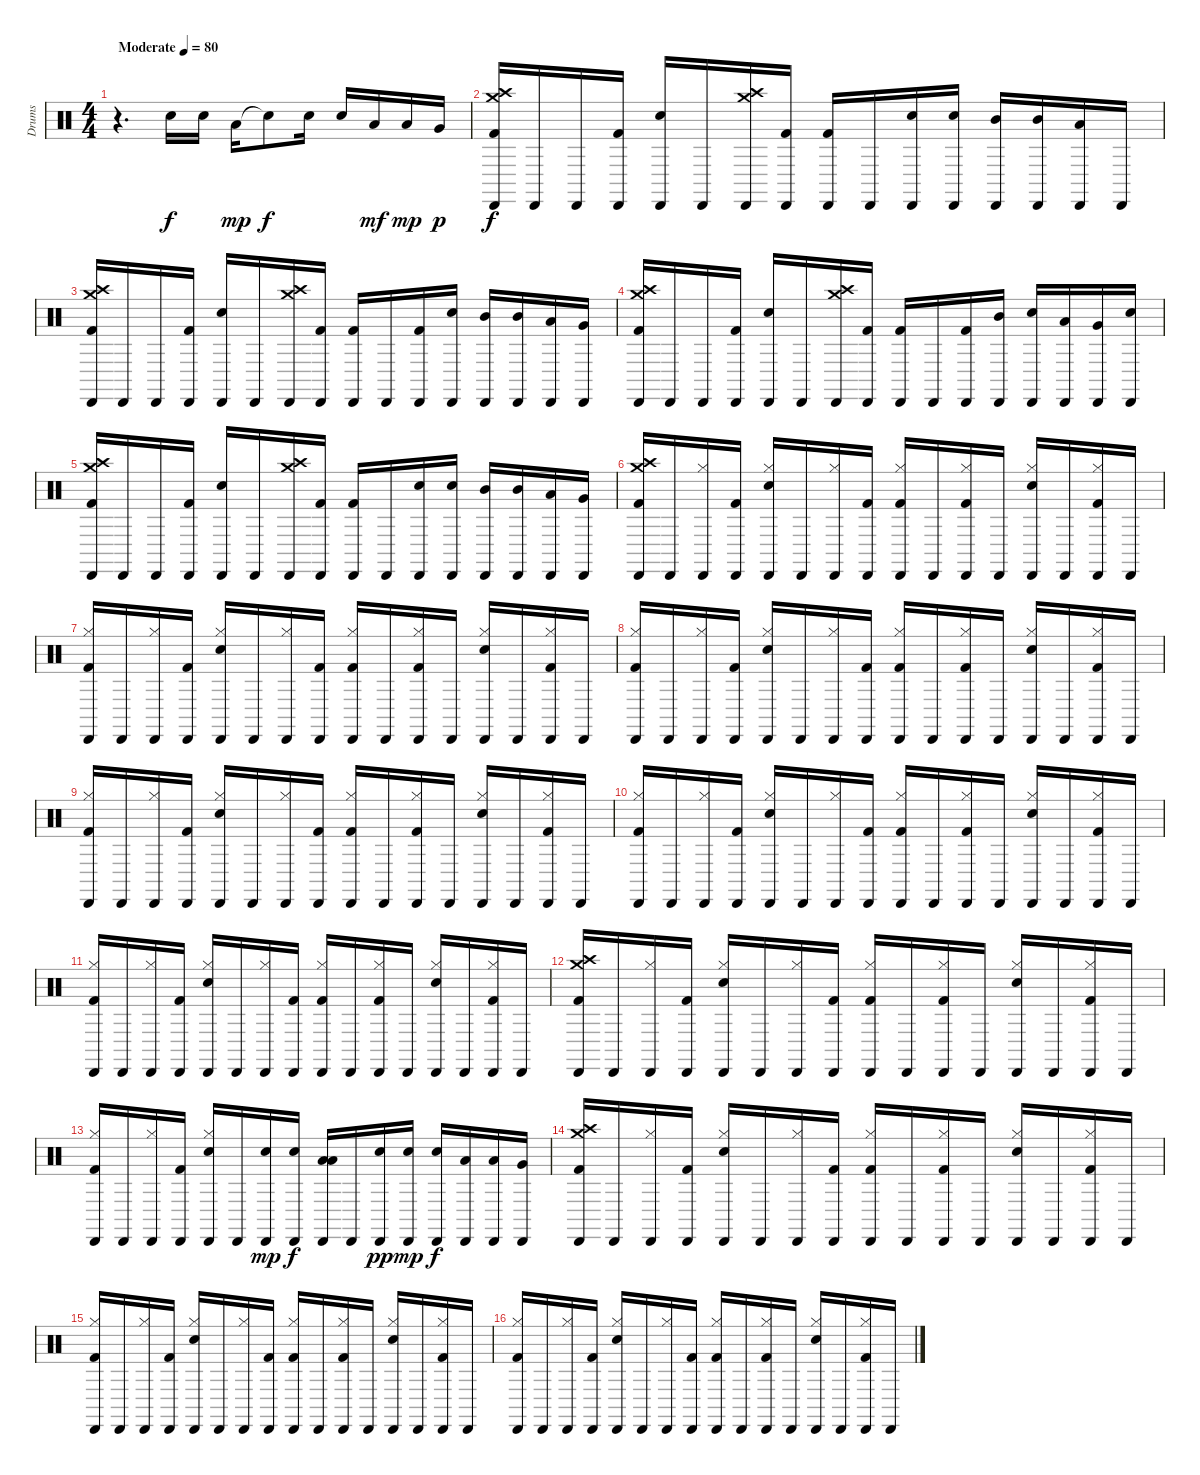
\track ("Drums" "Drums") {instrument percussion}
\staff {score}
\articulation defaults
\ts (4 4)
\tempo (80 "Moderate")
\clef neutral
\ks c
r.4{d dy f} "Electric Snare (hit)".16 "Electric Snare (hit)".16 "Low Tom (hit)".16{dy mp} "Snare (hit)"{t}.8{dy f} "Electric Snare (hit)".16 "Electric Snare (hit)".16 "Low Tom (hit)".16{dy mf} "Low Tom (hit)".16{dy mp} "Very Low Tom (hit)".16{dy p} |
("Cabasa (hit)" "Crash medium (hit)" "Kick (hit) 2" "Crash high (hit)").16{dy f} "Cabasa (hit)".16 "Cabasa (hit)".16 ("Cabasa (hit)" "Kick (hit) 2").16 ("Cabasa (hit)" "Electric Snare (hit)").16 "Cabasa (hit)".16 ("Cabasa (hit)" "Crash medium (hit)" "Crash high (hit)").16 ("Cabasa (hit)" "Kick (hit) 2").16 ("Cabasa (hit)" "Kick (hit) 2").16 "Cabasa (hit)".16 ("Cabasa (hit)" "Electric Snare (hit)").16 ("Cabasa (hit)" "Electric Snare (hit)").16 ("Cabasa (hit)" "Mid Tom (hit)").16 ("Cabasa (hit)" "Mid Tom (hit)").16 ("Cabasa (hit)" "Low Tom (hit)").16 "Cabasa (hit)".16 |
("Cabasa (hit)" "Crash medium (hit)" "Crash high (hit)" "Kick (hit) 2").16 "Cabasa (hit)".16 "Cabasa (hit)".16 ("Cabasa (hit)" "Kick (hit) 2").16 ("Cabasa (hit)" "Electric Snare (hit)").16 "Cabasa (hit)".16 ("Cabasa (hit)" "Crash high (hit)" "Crash medium (hit)").16 ("Cabasa (hit)" "Kick (hit) 2").16 ("Cabasa (hit)" "Kick (hit) 2").16 "Cabasa (hit)".16 ("Cabasa (hit)" "Kick (hit) 2").16 ("Cabasa (hit)" "Electric Snare (hit)").16 ("Cabasa (hit)" "Mid Tom (hit)").16 ("Cabasa (hit)" "Mid Tom (hit)").16 ("Cabasa (hit)" "Low Tom (hit)").16 ("Cabasa (hit)" "Very Low Tom (hit)").16 |
("Cabasa (hit)" "Kick (hit) 2" "Crash high (hit)" "Crash medium (hit)").16 "Cabasa (hit)".16 "Cabasa (hit)".16 ("Cabasa (hit)" "Kick (hit) 2").16 ("Cabasa (hit)" "Electric Snare (hit)").16 "Cabasa (hit)".16 ("Cabasa (hit)" "Crash medium (hit)" "Crash high (hit)").16 ("Cabasa (hit)" "Kick (hit) 2").16 ("Cabasa (hit)" "Kick (hit) 2").16 "Cabasa (hit)".16 ("Cabasa (hit)" "Kick (hit) 2").16 ("Cabasa (hit)" "Mid Tom (hit)").16 ("Cabasa (hit)" "Electric Snare (hit)").16 ("Cabasa (hit)" "Low Tom (hit)").16 ("Cabasa (hit)" "Very Low Tom (hit)").16 ("Cabasa (hit)" "Electric Snare (hit)").16 |
("Cabasa (hit)" "Crash high (hit)" "Crash medium (hit)" "Kick (hit) 2").16 "Cabasa (hit)".16 "Cabasa (hit)".16 ("Cabasa (hit)" "Kick (hit) 2").16 ("Cabasa (hit)" "Electric Snare (hit)").16 "Cabasa (hit)".16 ("Cabasa (hit)" "Crash medium (hit)" "Crash high (hit)").16 ("Cabasa (hit)" "Kick (hit) 2").16 ("Cabasa (hit)" "Kick (hit) 2").16 "Cabasa (hit)".16 ("Cabasa (hit)" "Electric Snare (hit)").16 ("Cabasa (hit)" "Electric Snare (hit)").16 ("Cabasa (hit)" "Mid Tom (hit)").16 ("Cabasa (hit)" "Mid Tom (hit)").16 ("Cabasa (hit)" "Low Tom (hit)").16 ("Cabasa (hit)" "Very Low Tom (hit)").16 |
("Cabasa (hit)" "Crash medium (hit)" "Kick (hit) 2" "Crash high (hit)").16 "Cabasa (hit)".16 ("Cabasa (hit)" "Hi-Hat (closed)").16 ("Cabasa (hit)" "Kick (hit) 2").16 ("Cabasa (hit)" "Hi-Hat (closed)" "Electric Snare (hit)").16 "Cabasa (hit)".16 ("Cabasa (hit)" "Hi-Hat (closed)").16 ("Cabasa (hit)" "Kick (hit) 2").16 ("Cabasa (hit)" "Hi-Hat (closed)" "Kick (hit) 2").16 "Cabasa (hit)".16 ("Cabasa (hit)" "Hi-Hat (closed)" "Kick (hit) 2").16 "Cabasa (hit)".16 ("Cabasa (hit)" "Hi-Hat (closed)" "Electric Snare (hit)").16 "Cabasa (hit)".16 ("Cabasa (hit)" "Hi-Hat (closed)" "Kick (hit) 2").16 "Cabasa (hit)".16 |
("Cabasa (hit)" "Hi-Hat (closed)" "Kick (hit) 2").16 "Cabasa (hit)".16 ("Cabasa (hit)" "Hi-Hat (closed)").16 ("Cabasa (hit)" "Kick (hit) 2").16 ("Cabasa (hit)" "Hi-Hat (closed)" "Electric Snare (hit)").16 "Cabasa (hit)".16 ("Cabasa (hit)" "Hi-Hat (closed)").16 ("Cabasa (hit)" "Kick (hit) 2").16 ("Cabasa (hit)" "Hi-Hat (closed)" "Kick (hit) 2").16 "Cabasa (hit)".16 ("Cabasa (hit)" "Hi-Hat (closed)" "Kick (hit) 2").16 "Cabasa (hit)".16 ("Cabasa (hit)" "Hi-Hat (closed)" "Electric Snare (hit)").16 "Cabasa (hit)".16 ("Cabasa (hit)" "Hi-Hat (closed)" "Kick (hit) 2").16 "Cabasa (hit)".16 |
("Cabasa (hit)" "Hi-Hat (closed)" "Kick (hit) 2").16 "Cabasa (hit)".16 ("Cabasa (hit)" "Hi-Hat (closed)").16 ("Cabasa (hit)" "Kick (hit) 2").16 ("Cabasa (hit)" "Hi-Hat (closed)" "Electric Snare (hit)").16 "Cabasa (hit)".16 ("Cabasa (hit)" "Hi-Hat (closed)").16 ("Cabasa (hit)" "Kick (hit) 2").16 ("Cabasa (hit)" "Hi-Hat (closed)" "Kick (hit) 2").16 "Cabasa (hit)".16 ("Cabasa (hit)" "Hi-Hat (closed)" "Kick (hit) 2").16 "Cabasa (hit)".16 ("Cabasa (hit)" "Hi-Hat (closed)" "Electric Snare (hit)").16 "Cabasa (hit)".16 ("Cabasa (hit)" "Hi-Hat (closed)" "Kick (hit) 2").16 "Cabasa (hit)".16 |
("Cabasa (hit)" "Hi-Hat (closed)" "Kick (hit) 2").16 "Cabasa (hit)".16 ("Cabasa (hit)" "Hi-Hat (closed)").16 ("Cabasa (hit)" "Kick (hit) 2").16 ("Cabasa (hit)" "Hi-Hat (closed)" "Electric Snare (hit)").16 "Cabasa (hit)".16 ("Cabasa (hit)" "Hi-Hat (closed)").16 ("Cabasa (hit)" "Kick (hit) 2").16 ("Cabasa (hit)" "Hi-Hat (closed)" "Kick (hit) 2").16 "Cabasa (hit)".16 ("Cabasa (hit)" "Hi-Hat (closed)" "Kick (hit) 2").16 "Cabasa (hit)".16 ("Cabasa (hit)" "Hi-Hat (closed)" "Electric Snare (hit)").16 "Cabasa (hit)".16 ("Cabasa (hit)" "Hi-Hat (closed)" "Kick (hit) 2").16 "Cabasa (hit)".16 |
("Cabasa (hit)" "Hi-Hat (closed)" "Kick (hit) 2").16 "Cabasa (hit)".16 ("Cabasa (hit)" "Hi-Hat (closed)").16 ("Cabasa (hit)" "Kick (hit) 2").16 ("Cabasa (hit)" "Hi-Hat (closed)" "Electric Snare (hit)").16 "Cabasa (hit)".16 ("Cabasa (hit)" "Hi-Hat (closed)").16 ("Cabasa (hit)" "Kick (hit) 2").16 ("Cabasa (hit)" "Hi-Hat (closed)" "Kick (hit) 2").16 "Cabasa (hit)".16 ("Cabasa (hit)" "Hi-Hat (closed)" "Kick (hit) 2").16 "Cabasa (hit)".16 ("Cabasa (hit)" "Hi-Hat (closed)" "Electric Snare (hit)").16 "Cabasa (hit)".16 ("Cabasa (hit)" "Hi-Hat (closed)" "Kick (hit) 2").16 "Cabasa (hit)".16 |
("Cabasa (hit)" "Hi-Hat (closed)" "Kick (hit) 2").16 "Cabasa (hit)".16 ("Cabasa (hit)" "Hi-Hat (closed)").16 ("Cabasa (hit)" "Kick (hit) 2").16 ("Cabasa (hit)" "Hi-Hat (closed)" "Electric Snare (hit)").16 "Cabasa (hit)".16 ("Cabasa (hit)" "Hi-Hat (closed)").16 ("Cabasa (hit)" "Kick (hit) 2").16 ("Cabasa (hit)" "Hi-Hat (closed)" "Kick (hit) 2").16 "Cabasa (hit)".16 ("Cabasa (hit)" "Hi-Hat (closed)" "Kick (hit) 2").16 "Cabasa (hit)".16 ("Cabasa (hit)" "Hi-Hat (closed)" "Electric Snare (hit)").16 "Cabasa (hit)".16 ("Cabasa (hit)" "Hi-Hat (closed)" "Kick (hit) 2").16 "Cabasa (hit)".16 |
("Cabasa (hit)" "Crash high (hit)" "Kick (hit) 2" "Crash medium (hit)").16 "Cabasa (hit)".16 ("Cabasa (hit)" "Hi-Hat (closed)").16 ("Cabasa (hit)" "Kick (hit) 2").16 ("Cabasa (hit)" "Hi-Hat (closed)" "Electric Snare (hit)").16 "Cabasa (hit)".16 ("Cabasa (hit)" "Hi-Hat (closed)").16 ("Cabasa (hit)" "Kick (hit) 2").16 ("Cabasa (hit)" "Hi-Hat (closed)" "Kick (hit) 2").16 "Cabasa (hit)".16 ("Cabasa (hit)" "Hi-Hat (closed)" "Kick (hit) 2").16 "Cabasa (hit)".16 ("Cabasa (hit)" "Hi-Hat (closed)" "Electric Snare (hit)").16 "Cabasa (hit)".16 ("Cabasa (hit)" "Hi-Hat (closed)" "Kick (hit) 2").16 "Cabasa (hit)".16 |
("Cabasa (hit)" "Hi-Hat (closed)" "Kick (hit) 2").16 "Cabasa (hit)".16 ("Cabasa (hit)" "Hi-Hat (closed)").16 ("Cabasa (hit)" "Kick (hit) 2").16 ("Cabasa (hit)" "Hi-Hat (closed)" "Electric Snare (hit)").16 "Cabasa (hit)".16 ("Cabasa (hit)" "Electric Snare (hit)").16{dy mp} ("Cabasa (hit)" "Electric Snare (hit)").16{dy f} ("Low Tom (hit)" "Low Tom (hit)" "Cabasa (hit)").16 "Cabasa (hit)".16 ("Electric Snare (hit)" "Cabasa (hit)").16{dy pp} ("Electric Snare (hit)" "Cabasa (hit)").16{dy mp} ("Electric Snare (hit)" "Cabasa (hit)").16{dy f} ("Low Tom (hit)" "Cabasa (hit)").16 ("Low Tom (hit)" "Cabasa (hit)").16 ("Very Low Tom (hit)" "Cabasa (hit)").16 |
("Cabasa (hit)" "Crash medium (hit)" "Kick (hit) 2" "Crash high (hit)").16 "Cabasa (hit)".16 ("Cabasa (hit)" "Hi-Hat (closed)").16 ("Cabasa (hit)" "Kick (hit) 2").16 ("Cabasa (hit)" "Hi-Hat (closed)" "Electric Snare (hit)").16 "Cabasa (hit)".16 ("Cabasa (hit)" "Hi-Hat (closed)").16 ("Cabasa (hit)" "Kick (hit) 2").16 ("Cabasa (hit)" "Hi-Hat (closed)" "Kick (hit) 2").16 "Cabasa (hit)".16 ("Cabasa (hit)" "Hi-Hat (closed)" "Kick (hit) 2").16 "Cabasa (hit)".16 ("Cabasa (hit)" "Hi-Hat (closed)" "Electric Snare (hit)").16 "Cabasa (hit)".16 ("Cabasa (hit)" "Hi-Hat (closed)" "Kick (hit) 2").16 "Cabasa (hit)".16 |
("Cabasa (hit)" "Hi-Hat (closed)" "Kick (hit) 2").16 "Cabasa (hit)".16 ("Cabasa (hit)" "Hi-Hat (closed)").16 ("Cabasa (hit)" "Kick (hit) 2").16 ("Cabasa (hit)" "Hi-Hat (closed)" "Electric Snare (hit)").16 "Cabasa (hit)".16 ("Cabasa (hit)" "Hi-Hat (closed)").16 ("Cabasa (hit)" "Kick (hit) 2").16 ("Cabasa (hit)" "Hi-Hat (closed)" "Kick (hit) 2").16 "Cabasa (hit)".16 ("Cabasa (hit)" "Hi-Hat (closed)" "Kick (hit) 2").16 "Cabasa (hit)".16 ("Cabasa (hit)" "Hi-Hat (closed)" "Electric Snare (hit)").16 "Cabasa (hit)".16 ("Cabasa (hit)" "Hi-Hat (closed)" "Kick (hit) 2").16 "Cabasa (hit)".16 |
("Cabasa (hit)" "Hi-Hat (closed)" "Kick (hit) 2").16 "Cabasa (hit)".16 ("Cabasa (hit)" "Hi-Hat (closed)").16 ("Cabasa (hit)" "Kick (hit) 2").16 ("Cabasa (hit)" "Hi-Hat (closed)" "Electric Snare (hit)").16 "Cabasa (hit)".16 ("Cabasa (hit)" "Hi-Hat (closed)").16 ("Cabasa (hit)" "Kick (hit) 2").16 ("Cabasa (hit)" "Hi-Hat (closed)" "Kick (hit) 2").16 "Cabasa (hit)".16 ("Cabasa (hit)" "Hi-Hat (closed)" "Kick (hit) 2").16 "Cabasa (hit)".16 ("Cabasa (hit)" "Hi-Hat (closed)" "Electric Snare (hit)").16 "Cabasa (hit)".16 ("Cabasa (hit)" "Hi-Hat (closed)" "Kick (hit) 2").16 "Cabasa (hit)".16
